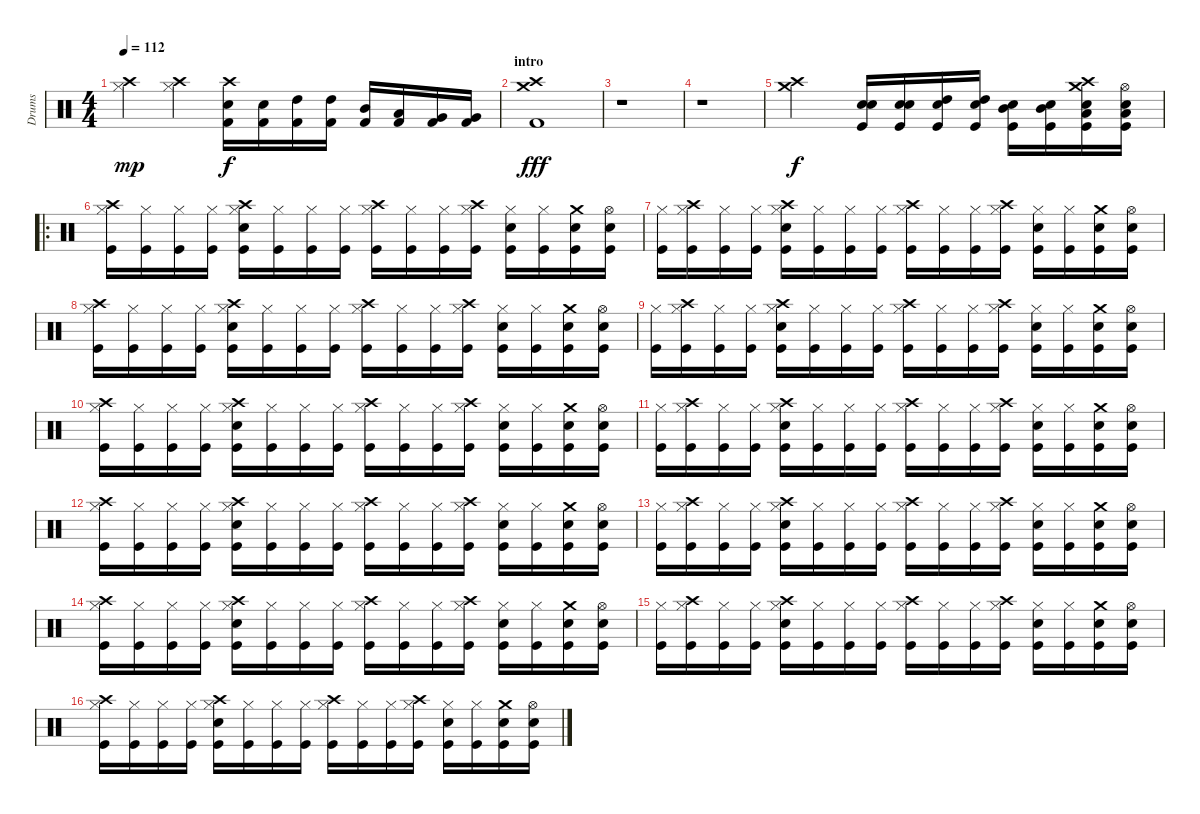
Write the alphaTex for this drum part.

\track ("Drums" "Drums") {instrument percussion}
\staff {score}
\articulation defaults
\ts (4 4)
\tempo 112
\clef neutral
\ks c
("Hi-Hat (closed)" "Crash high (hit)").4{dy mp} ("Hi-Hat (closed)" "Crash high (hit)").4 ("Electric Snare (hit)" "Kick (hit) 2" "Crash high (hit)").16{dy f} ("Electric Snare (hit)" "Kick (hit) 2").16 ("High Tom (hit)" "Kick (hit) 2").16 ("High Tom (hit)" "Kick (hit) 2").16 ("Mid Tom (hit)" "Kick (hit) 2").16 ("Low Tom (hit)" "Kick (hit) 2").16 ("Very Low Tom (hit)" "Kick (hit) 2").16 ("Very Low Tom (hit)" "Kick (hit) 2").16 |
\section ("" "intro")
("Crash medium (hit)" "Crash high (hit)" "Kick (hit) 2").1{dy fff} |
r.1 |
r.1 |
("Crash medium (hit)" "Crash high (hit)").2{dy f} ("Electric Snare (hit)" "Snare (hit) 2" "Kick (hit)").16 ("Electric Snare (hit)" "Snare (hit) 2" "Kick (hit)").16 ("High Tom (hit)" "Snare (hit) 2" "Kick (hit)").16 ("High Tom (hit)" "Snare (hit) 2" "Kick (hit)").16 ("Mid Tom (hit)" "Snare (hit) 2" "Kick (hit)").16 ("Mid Tom (hit)" "Snare (hit) 2" "Kick (hit)").16 ("Crash medium (hit)" "Crash high (hit)" "Low Tom (hit)" "Snare (hit) 2" "Kick (hit)").16 ("Hi-Hat (open)" "Low Tom (hit)" "Snare (hit) 2" "Kick (hit)").16 |
\ro
("Hi-Hat (closed)" "Crash high (hit)" "Kick (hit)").16 ("Hi-Hat (closed)" "Kick (hit)").16 ("Hi-Hat (closed)" "Kick (hit)").16 ("Hi-Hat (closed)" "Kick (hit)").16 ("Hi-Hat (closed)" "Crash high (hit)" "Electric Snare (hit)" "Kick (hit)").16 ("Hi-Hat (closed)" "Kick (hit)").16 ("Hi-Hat (closed)" "Kick (hit)").16 ("Hi-Hat (closed)" "Kick (hit)").16 ("Hi-Hat (closed)" "Crash high (hit)" "Kick (hit)").16 ("Hi-Hat (closed)" "Kick (hit)").16 ("Hi-Hat (closed)" "Kick (hit)").16 ("Hi-Hat (closed)" "Crash high (hit)" "Kick (hit)").16 ("Hi-Hat (closed)" "Electric Snare (hit)" "Kick (hit)").16 ("Hi-Hat (closed)" "Kick (hit)").16 ("Crash medium (hit)" "Electric Snare (hit)" "Kick (hit)").16 ("Hi-Hat (open)" "Electric Snare (hit)" "Kick (hit)").16 |
("Hi-Hat (closed)" "Kick (hit)").16 ("Hi-Hat (closed)" "Crash high (hit)" "Kick (hit)").16 ("Hi-Hat (closed)" "Kick (hit)").16 ("Hi-Hat (closed)" "Kick (hit)").16 ("Hi-Hat (closed)" "Crash high (hit)" "Electric Snare (hit)" "Kick (hit)").16 ("Hi-Hat (closed)" "Kick (hit)").16 ("Hi-Hat (closed)" "Kick (hit)").16 ("Hi-Hat (closed)" "Kick (hit)").16 ("Hi-Hat (closed)" "Crash high (hit)" "Kick (hit)").16 ("Hi-Hat (closed)" "Kick (hit)").16 ("Hi-Hat (closed)" "Kick (hit)").16 ("Hi-Hat (closed)" "Crash high (hit)" "Kick (hit)").16 ("Hi-Hat (closed)" "Electric Snare (hit)" "Kick (hit)").16 ("Hi-Hat (closed)" "Kick (hit)").16 ("Crash medium (hit)" "Electric Snare (hit)" "Kick (hit)").16 ("Hi-Hat (open)" "Electric Snare (hit)" "Kick (hit)").16 |
("Hi-Hat (closed)" "Crash high (hit)" "Kick (hit)").16 ("Hi-Hat (closed)" "Kick (hit)").16 ("Hi-Hat (closed)" "Kick (hit)").16 ("Hi-Hat (closed)" "Kick (hit)").16 ("Hi-Hat (closed)" "Crash high (hit)" "Electric Snare (hit)" "Kick (hit)").16 ("Hi-Hat (closed)" "Kick (hit)").16 ("Hi-Hat (closed)" "Kick (hit)").16 ("Hi-Hat (closed)" "Kick (hit)").16 ("Hi-Hat (closed)" "Crash high (hit)" "Kick (hit)").16 ("Hi-Hat (closed)" "Kick (hit)").16 ("Hi-Hat (closed)" "Kick (hit)").16 ("Hi-Hat (closed)" "Crash high (hit)" "Kick (hit)").16 ("Hi-Hat (closed)" "Electric Snare (hit)" "Kick (hit)").16 ("Hi-Hat (closed)" "Kick (hit)").16 ("Crash medium (hit)" "Electric Snare (hit)" "Kick (hit)").16 ("Hi-Hat (open)" "Electric Snare (hit)" "Kick (hit)").16 |
("Hi-Hat (closed)" "Kick (hit)").16 ("Hi-Hat (closed)" "Crash high (hit)" "Kick (hit)").16 ("Hi-Hat (closed)" "Kick (hit)").16 ("Hi-Hat (closed)" "Kick (hit)").16 ("Hi-Hat (closed)" "Crash high (hit)" "Electric Snare (hit)" "Kick (hit)").16 ("Hi-Hat (closed)" "Kick (hit)").16 ("Hi-Hat (closed)" "Kick (hit)").16 ("Hi-Hat (closed)" "Kick (hit)").16 ("Hi-Hat (closed)" "Crash high (hit)" "Kick (hit)").16 ("Hi-Hat (closed)" "Kick (hit)").16 ("Hi-Hat (closed)" "Kick (hit)").16 ("Hi-Hat (closed)" "Crash high (hit)" "Kick (hit)").16 ("Hi-Hat (closed)" "Electric Snare (hit)" "Kick (hit)").16 ("Hi-Hat (closed)" "Kick (hit)").16 ("Crash medium (hit)" "Electric Snare (hit)" "Kick (hit)").16 ("Hi-Hat (open)" "Electric Snare (hit)" "Kick (hit)").16 |
("Hi-Hat (closed)" "Crash high (hit)" "Kick (hit)").16 ("Hi-Hat (closed)" "Kick (hit)").16 ("Hi-Hat (closed)" "Kick (hit)").16 ("Hi-Hat (closed)" "Kick (hit)").16 ("Hi-Hat (closed)" "Crash high (hit)" "Electric Snare (hit)" "Kick (hit)").16 ("Hi-Hat (closed)" "Kick (hit)").16 ("Hi-Hat (closed)" "Kick (hit)").16 ("Hi-Hat (closed)" "Kick (hit)").16 ("Hi-Hat (closed)" "Crash high (hit)" "Kick (hit)").16 ("Hi-Hat (closed)" "Kick (hit)").16 ("Hi-Hat (closed)" "Kick (hit)").16 ("Hi-Hat (closed)" "Crash high (hit)" "Kick (hit)").16 ("Hi-Hat (closed)" "Electric Snare (hit)" "Kick (hit)").16 ("Hi-Hat (closed)" "Kick (hit)").16 ("Crash medium (hit)" "Electric Snare (hit)" "Kick (hit)").16 ("Hi-Hat (open)" "Electric Snare (hit)" "Kick (hit)").16 |
("Hi-Hat (closed)" "Kick (hit)").16 ("Hi-Hat (closed)" "Crash high (hit)" "Kick (hit)").16 ("Hi-Hat (closed)" "Kick (hit)").16 ("Hi-Hat (closed)" "Kick (hit)").16 ("Hi-Hat (closed)" "Crash high (hit)" "Electric Snare (hit)" "Kick (hit)").16 ("Hi-Hat (closed)" "Kick (hit)").16 ("Hi-Hat (closed)" "Kick (hit)").16 ("Hi-Hat (closed)" "Kick (hit)").16 ("Hi-Hat (closed)" "Crash high (hit)" "Kick (hit)").16 ("Hi-Hat (closed)" "Kick (hit)").16 ("Hi-Hat (closed)" "Kick (hit)").16 ("Hi-Hat (closed)" "Crash high (hit)" "Kick (hit)").16 ("Hi-Hat (closed)" "Electric Snare (hit)" "Kick (hit)").16 ("Hi-Hat (closed)" "Kick (hit)").16 ("Crash medium (hit)" "Electric Snare (hit)" "Kick (hit)").16 ("Hi-Hat (open)" "Electric Snare (hit)" "Kick (hit)").16 |
("Hi-Hat (closed)" "Crash high (hit)" "Kick (hit)").16 ("Hi-Hat (closed)" "Kick (hit)").16 ("Hi-Hat (closed)" "Kick (hit)").16 ("Hi-Hat (closed)" "Kick (hit)").16 ("Hi-Hat (closed)" "Crash high (hit)" "Electric Snare (hit)" "Kick (hit)").16 ("Hi-Hat (closed)" "Kick (hit)").16 ("Hi-Hat (closed)" "Kick (hit)").16 ("Hi-Hat (closed)" "Kick (hit)").16 ("Hi-Hat (closed)" "Crash high (hit)" "Kick (hit)").16 ("Hi-Hat (closed)" "Kick (hit)").16 ("Hi-Hat (closed)" "Kick (hit)").16 ("Hi-Hat (closed)" "Crash high (hit)" "Kick (hit)").16 ("Hi-Hat (closed)" "Electric Snare (hit)" "Kick (hit)").16 ("Hi-Hat (closed)" "Kick (hit)").16 ("Crash medium (hit)" "Electric Snare (hit)" "Kick (hit)").16 ("Hi-Hat (open)" "Electric Snare (hit)" "Kick (hit)").16 |
("Hi-Hat (closed)" "Kick (hit)").16 ("Hi-Hat (closed)" "Crash high (hit)" "Kick (hit)").16 ("Hi-Hat (closed)" "Kick (hit)").16 ("Hi-Hat (closed)" "Kick (hit)").16 ("Hi-Hat (closed)" "Crash high (hit)" "Electric Snare (hit)" "Kick (hit)").16 ("Hi-Hat (closed)" "Kick (hit)").16 ("Hi-Hat (closed)" "Kick (hit)").16 ("Hi-Hat (closed)" "Kick (hit)").16 ("Hi-Hat (closed)" "Crash high (hit)" "Kick (hit)").16 ("Hi-Hat (closed)" "Kick (hit)").16 ("Hi-Hat (closed)" "Kick (hit)").16 ("Hi-Hat (closed)" "Crash high (hit)" "Kick (hit)").16 ("Hi-Hat (closed)" "Electric Snare (hit)" "Kick (hit)").16 ("Hi-Hat (closed)" "Kick (hit)").16 ("Crash medium (hit)" "Electric Snare (hit)" "Kick (hit)").16 ("Hi-Hat (open)" "Electric Snare (hit)" "Kick (hit)").16 |
("Hi-Hat (closed)" "Crash high (hit)" "Kick (hit)").16 ("Hi-Hat (closed)" "Kick (hit)").16 ("Hi-Hat (closed)" "Kick (hit)").16 ("Hi-Hat (closed)" "Kick (hit)").16 ("Hi-Hat (closed)" "Crash high (hit)" "Electric Snare (hit)" "Kick (hit)").16 ("Hi-Hat (closed)" "Kick (hit)").16 ("Hi-Hat (closed)" "Kick (hit)").16 ("Hi-Hat (closed)" "Kick (hit)").16 ("Hi-Hat (closed)" "Crash high (hit)" "Kick (hit)").16 ("Hi-Hat (closed)" "Kick (hit)").16 ("Hi-Hat (closed)" "Kick (hit)").16 ("Hi-Hat (closed)" "Crash high (hit)" "Kick (hit)").16 ("Hi-Hat (closed)" "Electric Snare (hit)" "Kick (hit)").16 ("Hi-Hat (closed)" "Kick (hit)").16 ("Crash medium (hit)" "Electric Snare (hit)" "Kick (hit)").16 ("Hi-Hat (open)" "Electric Snare (hit)" "Kick (hit)").16 |
("Hi-Hat (closed)" "Kick (hit)").16 ("Hi-Hat (closed)" "Crash high (hit)" "Kick (hit)").16 ("Hi-Hat (closed)" "Kick (hit)").16 ("Hi-Hat (closed)" "Kick (hit)").16 ("Hi-Hat (closed)" "Crash high (hit)" "Electric Snare (hit)" "Kick (hit)").16 ("Hi-Hat (closed)" "Kick (hit)").16 ("Hi-Hat (closed)" "Kick (hit)").16 ("Hi-Hat (closed)" "Kick (hit)").16 ("Hi-Hat (closed)" "Crash high (hit)" "Kick (hit)").16 ("Hi-Hat (closed)" "Kick (hit)").16 ("Hi-Hat (closed)" "Kick (hit)").16 ("Hi-Hat (closed)" "Crash high (hit)" "Kick (hit)").16 ("Hi-Hat (closed)" "Electric Snare (hit)" "Kick (hit)").16 ("Hi-Hat (closed)" "Kick (hit)").16 ("Crash medium (hit)" "Electric Snare (hit)" "Kick (hit)").16 ("Hi-Hat (open)" "Electric Snare (hit)" "Kick (hit)").16 |
("Hi-Hat (closed)" "Crash high (hit)" "Kick (hit)").16 ("Hi-Hat (closed)" "Kick (hit)").16 ("Hi-Hat (closed)" "Kick (hit)").16 ("Hi-Hat (closed)" "Kick (hit)").16 ("Hi-Hat (closed)" "Crash high (hit)" "Electric Snare (hit)" "Kick (hit)").16 ("Hi-Hat (closed)" "Kick (hit)").16 ("Hi-Hat (closed)" "Kick (hit)").16 ("Hi-Hat (closed)" "Kick (hit)").16 ("Hi-Hat (closed)" "Crash high (hit)" "Kick (hit)").16 ("Hi-Hat (closed)" "Kick (hit)").16 ("Hi-Hat (closed)" "Kick (hit)").16 ("Hi-Hat (closed)" "Crash high (hit)" "Kick (hit)").16 ("Hi-Hat (closed)" "Electric Snare (hit)" "Kick (hit)").16 ("Hi-Hat (closed)" "Kick (hit)").16 ("Crash medium (hit)" "Electric Snare (hit)" "Kick (hit)").16 ("Hi-Hat (open)" "Electric Snare (hit)" "Kick (hit)").16
